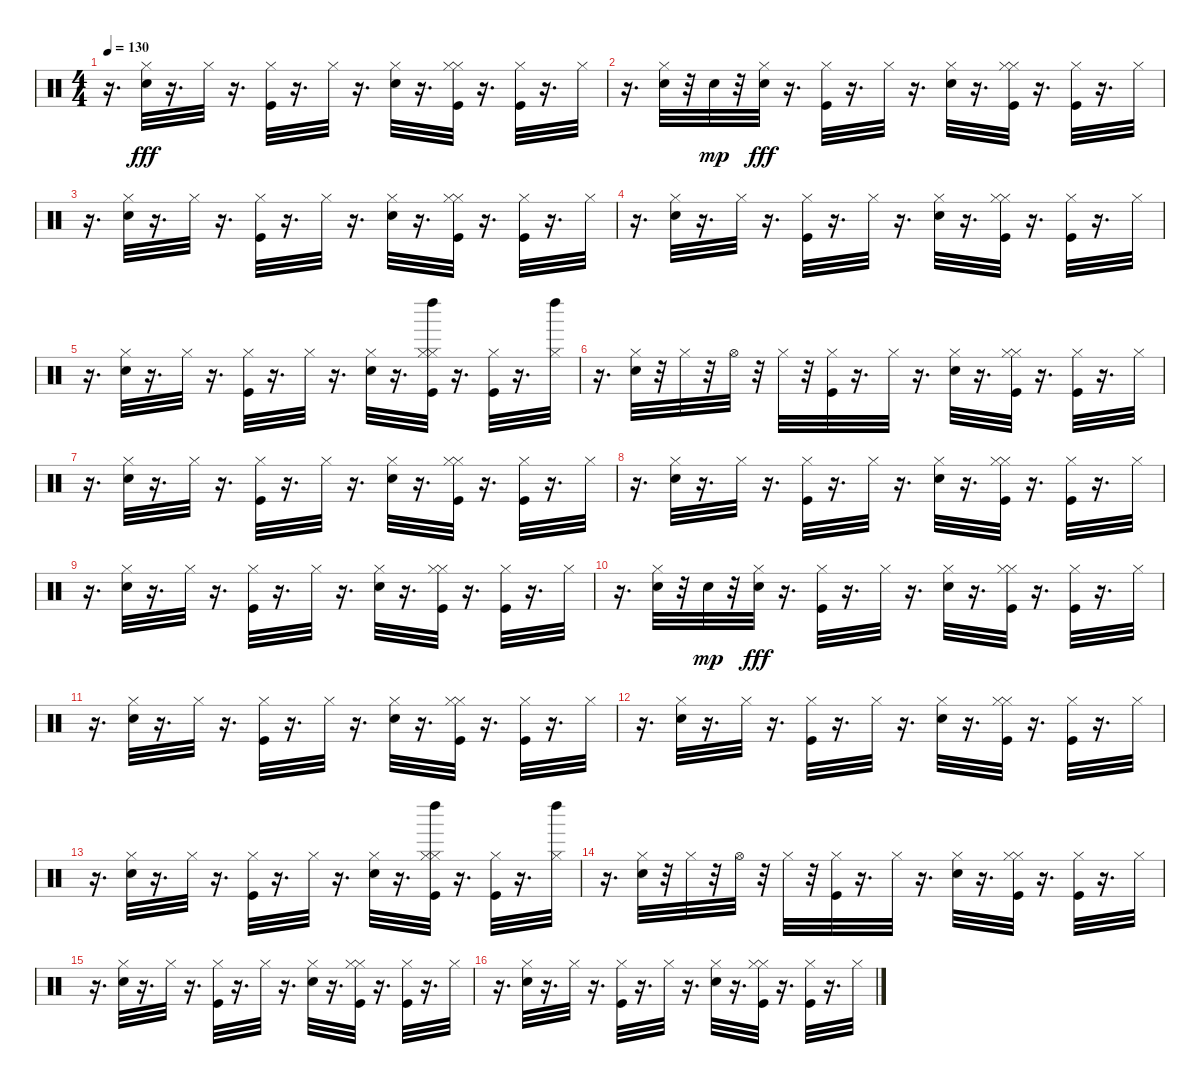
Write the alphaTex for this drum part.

\track "" {instrument percussion}
\staff {score}
\articulation defaults
\ts (4 4)
\tempo 130
\clef neutral
\ks c
r.16{d dy fff} ("Hi-Hat (closed)" "Electric Snare (hit)").32 r.16{d} "Hi-Hat (closed)".32 r.16{d} ("Hi-Hat (closed)" "Kick (hit)").32 r.16{d} "Hi-Hat (closed)".32 r.16{d} ("Hi-Hat (closed)" "Electric Snare (hit)").32 r.16{d} ("Hi-Hat (closed)" "Hi-Hat (closed)" "Kick (hit)").32 r.16{d} ("Hi-Hat (closed)" "Kick (hit)").32 r.16{d} "Hi-Hat (closed)".32 |
r.16{d} ("Hi-Hat (closed)" "Electric Snare (hit)").32 r.32 "Snare (hit) 2".32{dy mp} r.32 ("Snare (hit) 2" "Hi-Hat (closed)").32{dy fff} r.16{d} ("Hi-Hat (closed)" "Kick (hit)").32 r.16{d} "Hi-Hat (closed)".32 r.16{d} ("Hi-Hat (closed)" "Electric Snare (hit)").32 r.16{d} ("Hi-Hat (closed)" "Hi-Hat (closed)" "Kick (hit)").32 r.16{d} ("Hi-Hat (closed)" "Kick (hit)").32 r.16{d} "Hi-Hat (closed)".32 |
r.16{d} ("Hi-Hat (closed)" "Electric Snare (hit)").32 r.16{d} "Hi-Hat (closed)".32 r.16{d} ("Hi-Hat (closed)" "Kick (hit)").32 r.16{d} "Hi-Hat (closed)".32 r.16{d} ("Hi-Hat (closed)" "Electric Snare (hit)").32 r.16{d} ("Hi-Hat (closed)" "Hi-Hat (closed)" "Kick (hit)").32 r.16{d} ("Hi-Hat (closed)" "Kick (hit)").32 r.16{d} "Hi-Hat (closed)".32 |
r.16{d} ("Hi-Hat (closed)" "Electric Snare (hit)").32 r.16{d} "Hi-Hat (closed)".32 r.16{d} ("Hi-Hat (closed)" "Kick (hit)").32 r.16{d} "Hi-Hat (closed)".32 r.16{d} ("Hi-Hat (closed)" "Electric Snare (hit)").32 r.16{d} ("Hi-Hat (closed)" "Hi-Hat (closed)" "Kick (hit)").32 r.16{d} ("Hi-Hat (closed)" "Kick (hit)").32 r.16{d} "Hi-Hat (closed)".32 |
r.16{d} ("Hi-Hat (closed)" "Electric Snare (hit)").32 r.16{d} "Hi-Hat (closed)".32 r.16{d} ("Hi-Hat (closed)" "Kick (hit)").32 r.16{d} "Hi-Hat (closed)".32 r.16{d} ("Hi-Hat (closed)" "Electric Snare (hit)").32 r.16{d} ("Hi-Hat (closed)" "Left Maraca (hit)" "Hi-Hat (closed)" "Kick (hit)").32 r.16{d} ("Hi-Hat (closed)" "Kick (hit)").32 r.16{d} ("Left Maraca (hit)" "Hi-Hat (closed)").32 |
r.16{d} ("Hi-Hat (closed)" "Electric Snare (hit)").32 r.32 "Hi-Hat (closed)".32 r.32 "Hi-Hat (open)".32 r.32 "Hi-Hat (closed)".32 r.32 ("Hi-Hat (closed)" "Kick (hit)").32 r.16{d} "Hi-Hat (closed)".32 r.16{d} ("Hi-Hat (closed)" "Electric Snare (hit)").32 r.16{d} ("Hi-Hat (closed)" "Hi-Hat (closed)" "Kick (hit)").32 r.16{d} ("Hi-Hat (closed)" "Kick (hit)").32 r.16{d} "Hi-Hat (closed)".32 |
r.16{d} ("Hi-Hat (closed)" "Electric Snare (hit)").32 r.16{d} "Hi-Hat (closed)".32 r.16{d} ("Hi-Hat (closed)" "Kick (hit)").32 r.16{d} "Hi-Hat (closed)".32 r.16{d} ("Hi-Hat (closed)" "Electric Snare (hit)").32 r.16{d} ("Hi-Hat (closed)" "Hi-Hat (closed)" "Kick (hit)").32 r.16{d} ("Hi-Hat (closed)" "Kick (hit)").32 r.16{d} "Hi-Hat (closed)".32 |
r.16{d} ("Hi-Hat (closed)" "Electric Snare (hit)").32 r.16{d} "Hi-Hat (closed)".32 r.16{d} ("Hi-Hat (closed)" "Kick (hit)").32 r.16{d} "Hi-Hat (closed)".32 r.16{d} ("Hi-Hat (closed)" "Electric Snare (hit)").32 r.16{d} ("Hi-Hat (closed)" "Hi-Hat (closed)" "Kick (hit)").32 r.16{d} ("Hi-Hat (closed)" "Kick (hit)").32 r.16{d} "Hi-Hat (closed)".32 |
r.16{d} ("Hi-Hat (closed)" "Electric Snare (hit)").32 r.16{d} "Hi-Hat (closed)".32 r.16{d} ("Hi-Hat (closed)" "Kick (hit)").32 r.16{d} "Hi-Hat (closed)".32 r.16{d} ("Hi-Hat (closed)" "Electric Snare (hit)").32 r.16{d} ("Hi-Hat (closed)" "Hi-Hat (closed)" "Kick (hit)").32 r.16{d} ("Hi-Hat (closed)" "Kick (hit)").32 r.16{d} "Hi-Hat (closed)".32 |
r.16{d} ("Hi-Hat (closed)" "Electric Snare (hit)").32 r.32 "Snare (hit) 2".32{dy mp} r.32 ("Snare (hit) 2" "Hi-Hat (closed)").32{dy fff} r.16{d} ("Hi-Hat (closed)" "Kick (hit)").32 r.16{d} "Hi-Hat (closed)".32 r.16{d} ("Hi-Hat (closed)" "Electric Snare (hit)").32 r.16{d} ("Hi-Hat (closed)" "Hi-Hat (closed)" "Kick (hit)").32 r.16{d} ("Hi-Hat (closed)" "Kick (hit)").32 r.16{d} "Hi-Hat (closed)".32 |
r.16{d} ("Hi-Hat (closed)" "Electric Snare (hit)").32 r.16{d} "Hi-Hat (closed)".32 r.16{d} ("Hi-Hat (closed)" "Kick (hit)").32 r.16{d} "Hi-Hat (closed)".32 r.16{d} ("Hi-Hat (closed)" "Electric Snare (hit)").32 r.16{d} ("Hi-Hat (closed)" "Hi-Hat (closed)" "Kick (hit)").32 r.16{d} ("Hi-Hat (closed)" "Kick (hit)").32 r.16{d} "Hi-Hat (closed)".32 |
r.16{d} ("Hi-Hat (closed)" "Electric Snare (hit)").32 r.16{d} "Hi-Hat (closed)".32 r.16{d} ("Hi-Hat (closed)" "Kick (hit)").32 r.16{d} "Hi-Hat (closed)".32 r.16{d} ("Hi-Hat (closed)" "Electric Snare (hit)").32 r.16{d} ("Hi-Hat (closed)" "Hi-Hat (closed)" "Kick (hit)").32 r.16{d} ("Hi-Hat (closed)" "Kick (hit)").32 r.16{d} "Hi-Hat (closed)".32 |
r.16{d} ("Hi-Hat (closed)" "Electric Snare (hit)").32 r.16{d} "Hi-Hat (closed)".32 r.16{d} ("Hi-Hat (closed)" "Kick (hit)").32 r.16{d} "Hi-Hat (closed)".32 r.16{d} ("Hi-Hat (closed)" "Electric Snare (hit)").32 r.16{d} ("Hi-Hat (closed)" "Left Maraca (hit)" "Hi-Hat (closed)" "Kick (hit)").32 r.16{d} ("Hi-Hat (closed)" "Kick (hit)").32 r.16{d} ("Left Maraca (hit)" "Hi-Hat (closed)").32 |
r.16{d} ("Hi-Hat (closed)" "Electric Snare (hit)").32 r.32 "Hi-Hat (closed)".32 r.32 "Hi-Hat (open)".32 r.32 "Hi-Hat (closed)".32 r.32 ("Hi-Hat (closed)" "Kick (hit)").32 r.16{d} "Hi-Hat (closed)".32 r.16{d} ("Hi-Hat (closed)" "Electric Snare (hit)").32 r.16{d} ("Hi-Hat (closed)" "Hi-Hat (closed)" "Kick (hit)").32 r.16{d} ("Hi-Hat (closed)" "Kick (hit)").32 r.16{d} "Hi-Hat (closed)".32 |
r.16{d} ("Hi-Hat (closed)" "Electric Snare (hit)").32 r.16{d} "Hi-Hat (closed)".32 r.16{d} ("Hi-Hat (closed)" "Kick (hit)").32 r.16{d} "Hi-Hat (closed)".32 r.16{d} ("Hi-Hat (closed)" "Electric Snare (hit)").32 r.16{d} ("Hi-Hat (closed)" "Hi-Hat (closed)" "Kick (hit)").32 r.16{d} ("Hi-Hat (closed)" "Kick (hit)").32 r.16{d} "Hi-Hat (closed)".32 |
r.16{d} ("Hi-Hat (closed)" "Electric Snare (hit)").32 r.16{d} "Hi-Hat (closed)".32 r.16{d} ("Hi-Hat (closed)" "Kick (hit)").32 r.16{d} "Hi-Hat (closed)".32 r.16{d} ("Hi-Hat (closed)" "Electric Snare (hit)").32 r.16{d} ("Hi-Hat (closed)" "Hi-Hat (closed)" "Kick (hit)").32 r.16{d} ("Hi-Hat (closed)" "Kick (hit)").32 r.16{d} "Hi-Hat (closed)".32
